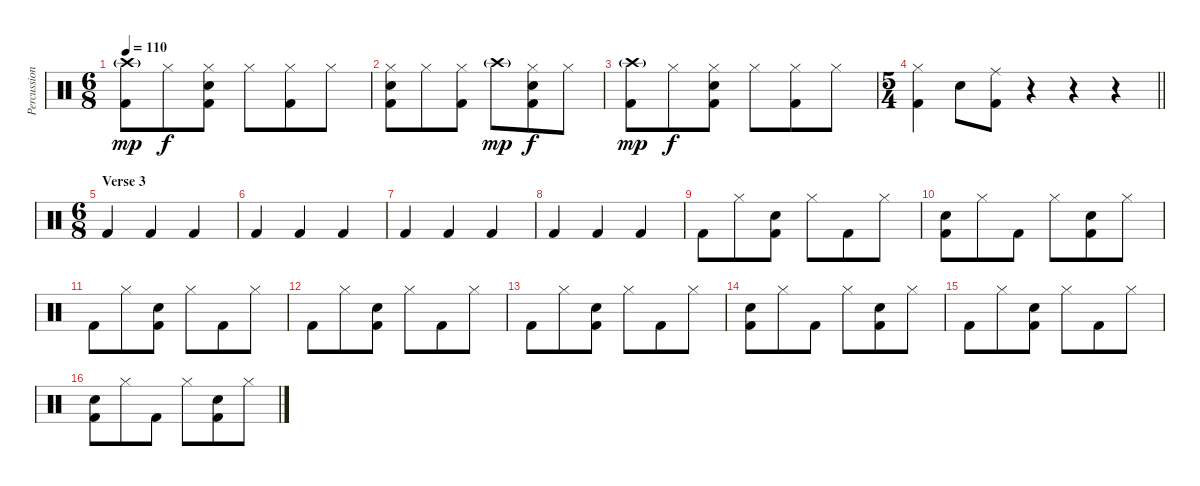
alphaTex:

\track ("Percussion" "Percussion") {instrument percussion}
\staff {score}
\articulation defaults
\ts (6 8)
\tempo 110
\clef neutral
\ks c
("Crash high (hit)"{g} "Kick (hit) 2").8{dy mp} "Hi-Hat (closed)".8{dy f} ("Hi-Hat (closed)" "Snare (hit) 2" "Kick (hit) 2").8 "Hi-Hat (closed)".8 ("Hi-Hat (closed)" "Kick (hit) 2").8 "Hi-Hat (closed)".8 |
("Hi-Hat (closed)" "Snare (hit) 2" "Kick (hit) 2").8 "Hi-Hat (closed)".8 ("Hi-Hat (closed)" "Kick (hit) 2").8 "Crash high (hit)"{g}.8{dy mp} ("Hi-Hat (closed)" "Snare (hit) 2" "Kick (hit) 2").8{dy f} "Hi-Hat (closed)".8 |
("Crash high (hit)"{g} "Kick (hit) 2").8{dy mp} "Hi-Hat (closed)".8{dy f} ("Hi-Hat (closed)" "Snare (hit) 2" "Kick (hit) 2").8 "Hi-Hat (closed)".8 ("Hi-Hat (closed)" "Kick (hit) 2").8 "Hi-Hat (closed)".8 |
\ts (5 4)
\barLineRight lightlight
("Hi-Hat (closed)" "Kick (hit) 2").4 "Snare (hit) 2".8 ("Ride (middle)" "Kick (hit) 2").8 r.4 r.4 r.4 |
\ts (6 8)
\section ("" "Verse 3")
"Kick (hit) 2".4 "Kick (hit) 2".4 "Kick (hit) 2".4 |
"Kick (hit) 2".4 "Kick (hit) 2".4 "Kick (hit) 2".4 |
"Kick (hit) 2".4 "Kick (hit) 2".4 "Kick (hit) 2".4 |
"Kick (hit) 2".4 "Kick (hit) 2".4 "Kick (hit) 2".4 |
"Kick (hit) 2".8 "Hi-Hat (closed)".8 ("Snare (hit) 2" "Kick (hit) 2").8 "Hi-Hat (closed)".8 "Kick (hit) 2".8 "Hi-Hat (closed)".8 |
("Snare (hit) 2" "Kick (hit) 2").8 "Hi-Hat (closed)".8 "Kick (hit) 2".8 "Hi-Hat (closed)".8 ("Snare (hit) 2" "Kick (hit) 2").8 "Hi-Hat (closed)".8 |
"Kick (hit) 2".8 "Hi-Hat (closed)".8 ("Snare (hit) 2" "Kick (hit) 2").8 "Hi-Hat (closed)".8 "Kick (hit) 2".8 "Hi-Hat (closed)".8 |
"Kick (hit) 2".8 "Hi-Hat (closed)".8 ("Snare (hit) 2" "Kick (hit) 2").8 "Hi-Hat (closed)".8 "Kick (hit) 2".8 "Hi-Hat (closed)".8 |
"Kick (hit) 2".8 "Hi-Hat (closed)".8 ("Snare (hit) 2" "Kick (hit) 2").8 "Hi-Hat (closed)".8 "Kick (hit) 2".8 "Hi-Hat (closed)".8 |
("Snare (hit) 2" "Kick (hit) 2").8 "Hi-Hat (closed)".8 "Kick (hit) 2".8 "Hi-Hat (closed)".8 ("Snare (hit) 2" "Kick (hit) 2").8 "Hi-Hat (closed)".8 |
"Kick (hit) 2".8 "Hi-Hat (closed)".8 ("Snare (hit) 2" "Kick (hit) 2").8 "Hi-Hat (closed)".8 "Kick (hit) 2".8 "Hi-Hat (closed)".8 |
("Snare (hit) 2" "Kick (hit) 2").8 "Hi-Hat (closed)".8 "Kick (hit) 2".8 "Hi-Hat (closed)".8 ("Snare (hit) 2" "Kick (hit) 2").8 "Hi-Hat (closed)".8
